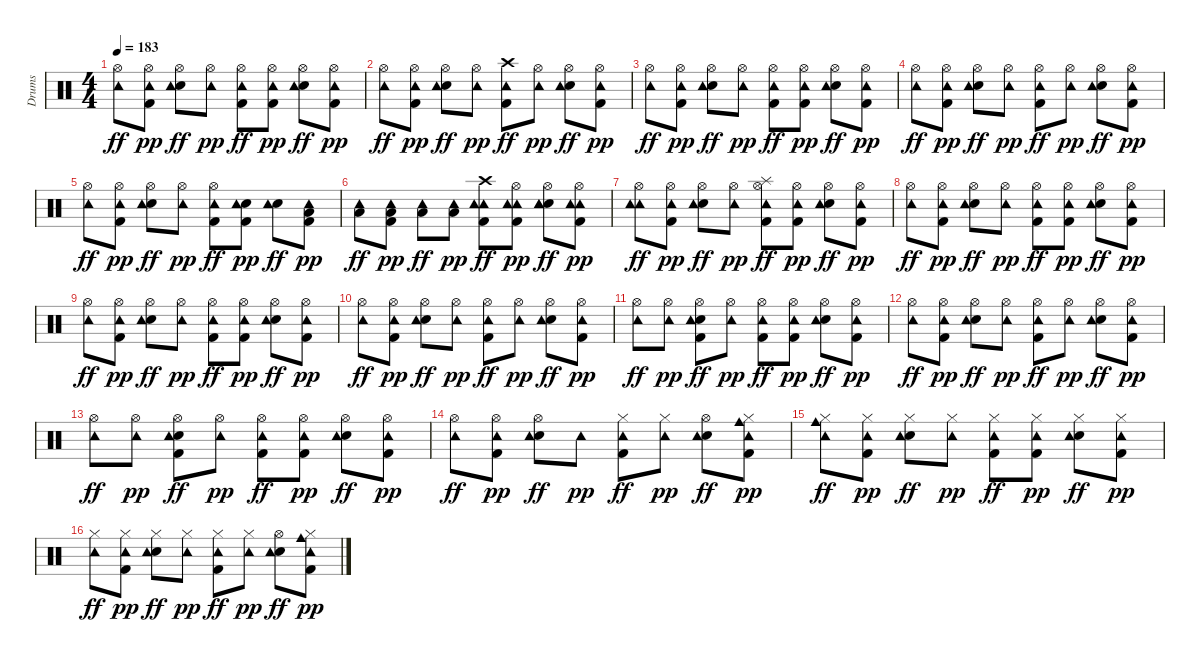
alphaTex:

\track ("Drums" "Drums") {instrument percussion}
\staff {score}
\articulation defaults
\ts (4 4)
\tempo 183
\clef neutral
\ks c
("Hi-Hat (open)" "Tambourine (hit)").8{dy ff} ("Kick (hit) 2" "Hi-Hat (open)" "Tambourine (hit)").8{dy pp} ("Snare (hit) 2" "Hi-Hat (open)" "Tambourine (hit)").8{dy ff} ("Hi-Hat (open)" "Tambourine (hit)").8{dy pp} ("Kick (hit) 2" "Hi-Hat (open)" "Tambourine (hit)").8{dy ff} ("Kick (hit) 2" "Hi-Hat (open)" "Tambourine (hit)").8{dy pp} ("Snare (hit) 2" "Hi-Hat (open)" "Tambourine (hit)").8{dy ff} ("Kick (hit) 2" "Hi-Hat (open)" "Tambourine (hit)").8{dy pp} |
("Hi-Hat (open)" "Tambourine (hit)").8{dy ff} ("Kick (hit) 2" "Hi-Hat (open)" "Tambourine (hit)").8{dy pp} ("Snare (hit) 2" "Hi-Hat (open)" "Tambourine (hit)").8{dy ff} ("Hi-Hat (open)" "Tambourine (hit)").8{dy pp} ("Kick (hit) 2" "Crash high (hit)" "Tambourine (hit)").8{dy ff} ("Hi-Hat (open)" "Tambourine (hit)").8{dy pp} ("Snare (hit) 2" "Hi-Hat (open)" "Tambourine (hit)").8{dy ff} ("Kick (hit) 2" "Hi-Hat (open)" "Tambourine (hit)").8{dy pp} |
("Hi-Hat (open)" "Tambourine (hit)").8{dy ff} ("Kick (hit) 2" "Hi-Hat (open)" "Tambourine (hit)").8{dy pp} ("Snare (hit) 2" "Hi-Hat (open)" "Tambourine (hit)").8{dy ff} ("Hi-Hat (open)" "Tambourine (hit)").8{dy pp} ("Kick (hit) 2" "Hi-Hat (open)" "Tambourine (hit)").8{dy ff} ("Kick (hit) 2" "Hi-Hat (open)" "Tambourine (hit)").8{dy pp} ("Snare (hit) 2" "Hi-Hat (open)" "Tambourine (hit)").8{dy ff} ("Kick (hit) 2" "Hi-Hat (open)" "Tambourine (hit)").8{dy pp} |
("Hi-Hat (open)" "Tambourine (hit)").8{dy ff} ("Kick (hit) 2" "Hi-Hat (open)" "Tambourine (hit)").8{dy pp} ("Snare (hit) 2" "Hi-Hat (open)" "Tambourine (hit)").8{dy ff} ("Hi-Hat (open)" "Tambourine (hit)").8{dy pp} ("Kick (hit) 2" "Hi-Hat (open)" "Tambourine (hit)").8{dy ff} ("Hi-Hat (open)" "Tambourine (hit)").8{dy pp} ("Snare (hit) 2" "Hi-Hat (open)" "Tambourine (hit)").8{dy ff} ("Kick (hit) 2" "Hi-Hat (open)" "Tambourine (hit)").8{dy pp} |
("Hi-Hat (open)" "Tambourine (hit)").8{dy ff} ("Kick (hit) 2" "Hi-Hat (open)" "Tambourine (hit)").8{dy pp} ("Snare (hit) 2" "Hi-Hat (open)" "Tambourine (hit)").8{dy ff} ("Hi-Hat (open)" "Tambourine (hit)").8{dy pp} ("Kick (hit) 2" "Hi-Hat (open)" "Tambourine (hit)").8{dy ff} ("Kick (hit) 2" "Snare (hit) 2" "Tambourine (hit)").8{dy pp} ("Snare (hit) 2" "Tambourine (hit)").8{dy ff} ("Kick (hit) 2" "Low Tom (hit)" "Tambourine (hit)").8{dy pp} |
("Low Tom (hit)" "Tambourine (hit)").8{dy ff} ("Kick (hit) 2" "Low Floor Tom (hit)" "Tambourine (hit)").8{dy pp} ("Low Floor Tom (hit)" "Tambourine (hit)").8{dy ff} ("Low Floor Tom (hit)" "Tambourine (hit)").8{dy pp} ("Kick (hit) 2" "Crash high (hit)" "Tambourine (hit)" "Tambourine (hit)").8{dy ff} ("Kick (hit) 2" "Hi-Hat (open)" "Tambourine (hit)" "Tambourine (hit)").8{dy pp} ("Snare (hit) 2" "Hi-Hat (open)" "Tambourine (hit)" "Tambourine (hit)").8{dy ff} ("Kick (hit) 2" "Hi-Hat (open)" "Tambourine (hit)" "Tambourine (hit)").8{dy pp} |
("Hi-Hat (open)" "Tambourine (hit)" "Tambourine (hit)").8{dy ff} ("Kick (hit) 2" "Hi-Hat (open)" "Tambourine (hit)").8{dy pp} ("Snare (hit) 2" "Hi-Hat (open)" "Tambourine (hit)").8{dy ff} ("Hi-Hat (open)" "Tambourine (hit)").8{dy pp} ("Kick (hit) 2" "Hi-Hat (open)" "Splash (hit)" "Tambourine (hit)").8{dy ff} ("Kick (hit) 2" "Hi-Hat (open)" "Tambourine (hit)").8{dy pp} ("Snare (hit) 2" "Hi-Hat (open)" "Tambourine (hit)").8{dy ff} ("Kick (hit) 2" "Hi-Hat (open)" "Tambourine (hit)").8{dy pp} |
("Hi-Hat (open)" "Tambourine (hit)").8{dy ff} ("Kick (hit) 2" "Hi-Hat (open)" "Tambourine (hit)").8{dy pp} ("Snare (hit) 2" "Hi-Hat (open)" "Tambourine (hit)").8{dy ff} ("Hi-Hat (open)" "Tambourine (hit)").8{dy pp} ("Kick (hit) 2" "Hi-Hat (open)" "Tambourine (hit)").8{dy ff} ("Kick (hit) 2" "Hi-Hat (open)" "Tambourine (hit)").8{dy pp} ("Snare (hit) 2" "Hi-Hat (open)" "Tambourine (hit)").8{dy ff} ("Kick (hit) 2" "Hi-Hat (open)" "Tambourine (hit)").8{dy pp} |
("Hi-Hat (open)" "Tambourine (hit)").8{dy ff} ("Kick (hit) 2" "Hi-Hat (open)" "Tambourine (hit)").8{dy pp} ("Snare (hit) 2" "Hi-Hat (open)" "Tambourine (hit)").8{dy ff} ("Hi-Hat (open)" "Tambourine (hit)").8{dy pp} ("Kick (hit) 2" "Hi-Hat (open)" "Tambourine (hit)").8{dy ff} ("Kick (hit) 2" "Hi-Hat (open)" "Tambourine (hit)").8{dy pp} ("Snare (hit) 2" "Hi-Hat (open)" "Tambourine (hit)").8{dy ff} ("Kick (hit) 2" "Hi-Hat (open)" "Tambourine (hit)").8{dy pp} |
("Hi-Hat (open)" "Tambourine (hit)").8{dy ff} ("Kick (hit) 2" "Hi-Hat (open)" "Tambourine (hit)").8{dy pp} ("Snare (hit) 2" "Hi-Hat (open)" "Tambourine (hit)").8{dy ff} ("Hi-Hat (open)" "Tambourine (hit)").8{dy pp} ("Kick (hit) 2" "Hi-Hat (open)" "Tambourine (hit)").8{dy ff} ("Hi-Hat (open)" "Tambourine (hit)").8{dy pp} ("Snare (hit) 2" "Hi-Hat (open)" "Tambourine (hit)").8{dy ff} ("Kick (hit) 2" "Hi-Hat (open)" "Tambourine (hit)").8{dy pp} |
("Hi-Hat (open)" "Tambourine (hit)").8{dy ff} ("Hi-Hat (open)" "Tambourine (hit)").8{dy pp} ("Kick (hit) 2" "Snare (hit) 2" "Hi-Hat (open)" "Tambourine (hit)").8{dy ff} ("Hi-Hat (open)" "Tambourine (hit)").8{dy pp} ("Kick (hit) 2" "Hi-Hat (open)" "Tambourine (hit)").8{dy ff} ("Kick (hit) 2" "Hi-Hat (open)" "Tambourine (hit)").8{dy pp} ("Snare (hit) 2" "Hi-Hat (open)" "Tambourine (hit)").8{dy ff} ("Kick (hit) 2" "Hi-Hat (open)" "Tambourine (hit)").8{dy pp} |
("Hi-Hat (open)" "Tambourine (hit)").8{dy ff} ("Kick (hit) 2" "Hi-Hat (open)" "Tambourine (hit)").8{dy pp} ("Snare (hit) 2" "Hi-Hat (open)" "Tambourine (hit)").8{dy ff} ("Hi-Hat (open)" "Tambourine (hit)").8{dy pp} ("Kick (hit) 2" "Hi-Hat (open)" "Tambourine (hit)").8{dy ff} ("Hi-Hat (open)" "Tambourine (hit)").8{dy pp} ("Snare (hit) 2" "Hi-Hat (open)" "Tambourine (hit)").8{dy ff} ("Kick (hit) 2" "Hi-Hat (open)" "Tambourine (hit)").8{dy pp} |
("Hi-Hat (open)" "Tambourine (hit)").8{dy ff} ("Hi-Hat (open)" "Tambourine (hit)").8{dy pp} ("Kick (hit) 2" "Snare (hit) 2" "Hi-Hat (open)" "Tambourine (hit)").8{dy ff} ("Hi-Hat (open)" "Tambourine (hit)").8{dy pp} ("Kick (hit) 2" "Hi-Hat (open)" "Tambourine (hit)").8{dy ff} ("Kick (hit) 2" "Hi-Hat (open)" "Tambourine (hit)").8{dy pp} ("Snare (hit) 2" "Hi-Hat (open)" "Tambourine (hit)").8{dy ff} ("Kick (hit) 2" "Hi-Hat (open)" "Tambourine (hit)").8{dy pp} |
("Hi-Hat (open)" "Tambourine (hit)").8{dy ff} ("Kick (hit) 2" "Hi-Hat (open)" "Tambourine (hit)").8{dy pp} ("Snare (hit) 2" "Hi-Hat (open)" "Tambourine (hit)").8{dy ff} "Tambourine (hit)".8{dy pp} ("Kick (hit) 2" "Hi-Hat (closed)" "Tambourine (hit)").8{dy ff} ("Hi-Hat (closed)" "Tambourine (hit)").8{dy pp} ("Snare (hit) 2" "Hi-Hat (open)" "Tambourine (hit)").8{dy ff} ("Cowbell medium (hit)" "Kick (hit) 2" "Hi-Hat (closed)" "Tambourine (hit)").8{dy pp} |
("Cowbell medium (hit)" "Hi-Hat (closed)" "Tambourine (hit)").8{dy ff} ("Kick (hit) 2" "Hi-Hat (closed)" "Tambourine (hit)").8{dy pp} ("Snare (hit) 2" "Hi-Hat (closed)" "Tambourine (hit)").8{dy ff} ("Hi-Hat (closed)" "Tambourine (hit)").8{dy pp} ("Kick (hit) 2" "Hi-Hat (closed)" "Tambourine (hit)").8{dy ff} ("Kick (hit) 2" "Hi-Hat (closed)" "Tambourine (hit)").8{dy pp} ("Snare (hit) 2" "Hi-Hat (closed)" "Tambourine (hit)").8{dy ff} ("Kick (hit) 2" "Hi-Hat (closed)" "Tambourine (hit)").8{dy pp} |
("Hi-Hat (closed)" "Tambourine (hit)").8{dy ff} ("Kick (hit) 2" "Hi-Hat (closed)" "Tambourine (hit)").8{dy pp} ("Snare (hit) 2" "Hi-Hat (closed)" "Tambourine (hit)").8{dy ff} ("Hi-Hat (closed)" "Tambourine (hit)").8{dy pp} ("Kick (hit) 2" "Hi-Hat (closed)" "Tambourine (hit)").8{dy ff} ("Hi-Hat (closed)" "Tambourine (hit)").8{dy pp} ("Snare (hit) 2" "Hi-Hat (open)" "Tambourine (hit)").8{dy ff} ("Cowbell medium (hit)" "Kick (hit) 2" "Hi-Hat (closed)" "Tambourine (hit)").8{dy pp}
